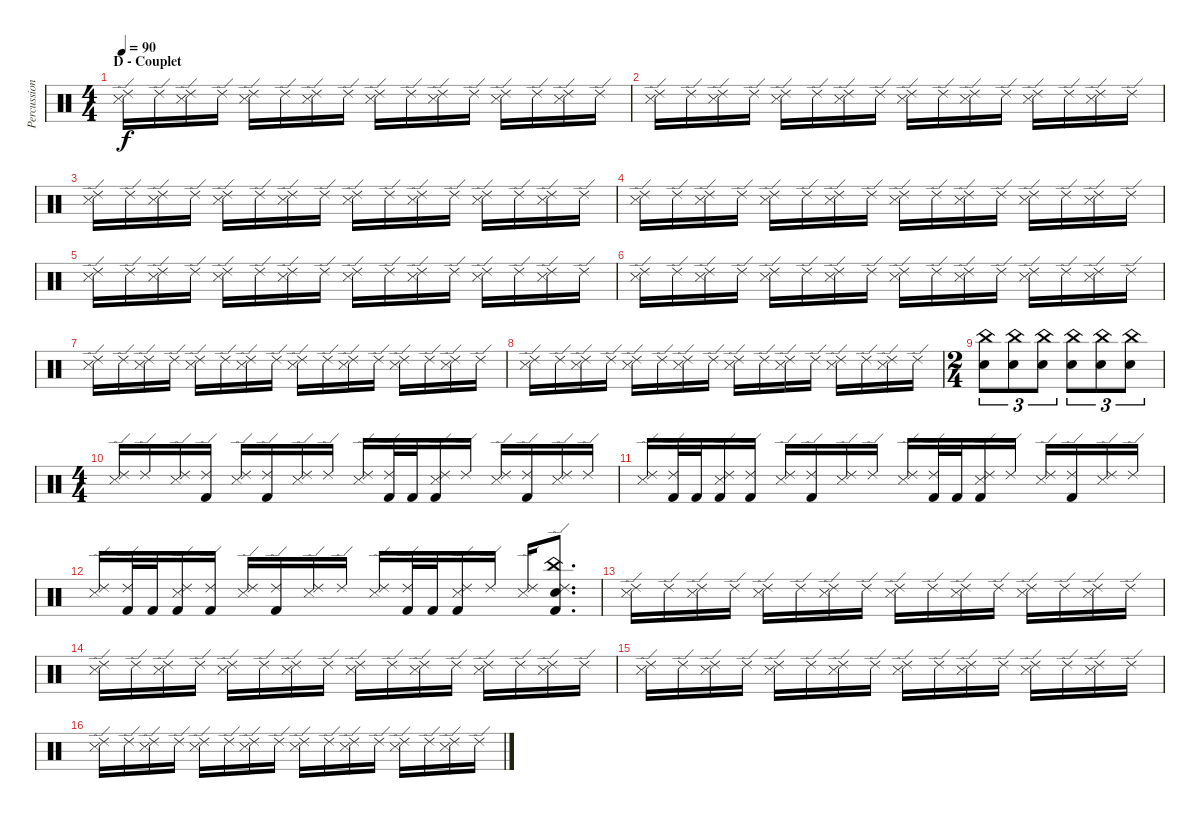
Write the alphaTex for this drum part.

\track ("Percussions" "Percussion") {instrument percussion}
\staff {score}
\articulation defaults
\ts (4 4)
\section ("" "D - Couplet")
\tempo 90
\clef neutral
\ks c
("Ride (edge) 2" "Metronome (hit)").16{dy f} "Ride (edge) 2".16 ("Ride (edge) 2" "Metronome (hit)").16 "Ride (edge) 2".16 ("Ride (edge) 2" "Metronome (hit)").16 "Ride (edge) 2".16 ("Ride (edge) 2" "Metronome (hit)").16 "Ride (edge) 2".16 ("Ride (edge) 2" "Metronome (hit)").16 "Ride (edge) 2".16 ("Ride (edge) 2" "Metronome (hit)").16 "Ride (edge) 2".16 ("Ride (edge) 2" "Metronome (hit)").16 "Ride (edge) 2".16 ("Ride (edge) 2" "Metronome (hit)").16 "Ride (edge) 2".16 |
("Ride (edge) 2" "Metronome (hit)").16 "Ride (edge) 2".16 ("Ride (edge) 2" "Metronome (hit)").16 "Ride (edge) 2".16 ("Ride (edge) 2" "Metronome (hit)").16 "Ride (edge) 2".16 ("Ride (edge) 2" "Metronome (hit)").16 "Ride (edge) 2".16 ("Ride (edge) 2" "Metronome (hit)").16 "Ride (edge) 2".16 ("Ride (edge) 2" "Metronome (hit)").16 "Ride (edge) 2".16 ("Ride (edge) 2" "Metronome (hit)").16 "Ride (edge) 2".16 ("Ride (edge) 2" "Metronome (hit)").16 "Ride (edge) 2".16 |
("Ride (edge) 2" "Metronome (hit)").16 "Ride (edge) 2".16 ("Ride (edge) 2" "Metronome (hit)").16 "Ride (edge) 2".16 ("Ride (edge) 2" "Metronome (hit)").16 "Ride (edge) 2".16 ("Ride (edge) 2" "Metronome (hit)").16 "Ride (edge) 2".16 ("Ride (edge) 2" "Metronome (hit)").16 "Ride (edge) 2".16 ("Ride (edge) 2" "Metronome (hit)").16 "Ride (edge) 2".16 ("Ride (edge) 2" "Metronome (hit)").16 "Ride (edge) 2".16 ("Ride (edge) 2" "Metronome (hit)").16 "Ride (edge) 2".16 |
("Ride (edge) 2" "Metronome (hit)").16 "Ride (edge) 2".16 ("Ride (edge) 2" "Metronome (hit)").16 "Ride (edge) 2".16 ("Ride (edge) 2" "Metronome (hit)").16 "Ride (edge) 2".16 ("Ride (edge) 2" "Metronome (hit)").16 "Ride (edge) 2".16 ("Ride (edge) 2" "Metronome (hit)").16 "Ride (edge) 2".16 ("Ride (edge) 2" "Metronome (hit)").16 "Ride (edge) 2".16 ("Ride (edge) 2" "Metronome (hit)").16 "Ride (edge) 2".16 ("Ride (edge) 2" "Metronome (hit)").16 "Ride (edge) 2".16 |
("Ride (edge) 2" "Metronome (hit)").16 "Ride (edge) 2".16 ("Ride (edge) 2" "Metronome (hit)").16 "Ride (edge) 2".16 ("Ride (edge) 2" "Metronome (hit)").16 "Ride (edge) 2".16 ("Ride (edge) 2" "Metronome (hit)").16 "Ride (edge) 2".16 ("Ride (edge) 2" "Metronome (hit)").16 "Ride (edge) 2".16 ("Ride (edge) 2" "Metronome (hit)").16 "Ride (edge) 2".16 ("Ride (edge) 2" "Metronome (hit)").16 "Ride (edge) 2".16 ("Ride (edge) 2" "Metronome (hit)").16 "Ride (edge) 2".16 |
("Ride (edge) 2" "Metronome (hit)").16 "Ride (edge) 2".16 ("Ride (edge) 2" "Metronome (hit)").16 "Ride (edge) 2".16 ("Ride (edge) 2" "Metronome (hit)").16 "Ride (edge) 2".16 ("Ride (edge) 2" "Metronome (hit)").16 "Ride (edge) 2".16 ("Ride (edge) 2" "Metronome (hit)").16 "Ride (edge) 2".16 ("Ride (edge) 2" "Metronome (hit)").16 "Ride (edge) 2".16 ("Ride (edge) 2" "Metronome (hit)").16 "Ride (edge) 2".16 ("Ride (edge) 2" "Metronome (hit)").16 "Ride (edge) 2".16 |
("Ride (edge) 2" "Metronome (hit)").16 "Ride (edge) 2".16 ("Ride (edge) 2" "Metronome (hit)").16 "Ride (edge) 2".16 ("Ride (edge) 2" "Metronome (hit)").16 "Ride (edge) 2".16 ("Ride (edge) 2" "Metronome (hit)").16 "Ride (edge) 2".16 ("Ride (edge) 2" "Metronome (hit)").16 "Ride (edge) 2".16 ("Ride (edge) 2" "Metronome (hit)").16 "Ride (edge) 2".16 ("Ride (edge) 2" "Metronome (hit)").16 "Ride (edge) 2".16 ("Ride (edge) 2" "Metronome (hit)").16 "Ride (edge) 2".16 |
("Ride (edge) 2" "Metronome (hit)").16 "Ride (edge) 2".16 ("Ride (edge) 2" "Metronome (hit)").16 "Ride (edge) 2".16 ("Ride (edge) 2" "Metronome (hit)").16 "Ride (edge) 2".16 ("Ride (edge) 2" "Metronome (hit)").16 "Ride (edge) 2".16 ("Ride (edge) 2" "Metronome (hit)").16 "Ride (edge) 2".16 ("Ride (edge) 2" "Metronome (hit)").16 "Ride (edge) 2".16 ("Ride (edge) 2" "Metronome (hit)").16 "Ride (edge) 2".16 ("Ride (edge) 2" "Metronome (hit)").16 "Ride (edge) 2".16 |
\ts (2 4)
("China (hit)" "Snare (hit) 2").8{tu (3 2)} ("China (hit)" "Snare (hit) 2").8{tu (3 2)} ("China (hit)" "Snare (hit) 2").8{tu (3 2)} ("China (hit)" "Snare (hit) 2").8{tu (3 2)} ("China (hit)" "Snare (hit) 2").8{tu (3 2)} ("China (hit)" "Snare (hit) 2").8{tu (3 2)} |
\ts (4 4)
("Ride (edge) 2" "Metronome (hit)").16 "Ride (edge) 2".16 ("Ride (edge) 2" "Metronome (hit)").16 ("Ride (edge) 2" "Kick (hit) 2").16 ("Ride (edge) 2" "Metronome (hit)").16 ("Ride (edge) 2" "Kick (hit) 2").16 ("Ride (edge) 2" "Metronome (hit)").16 "Ride (edge) 2".16 ("Ride (edge) 2" "Metronome (hit)").16 ("Ride (edge) 2" "Kick (hit) 2").32 "Kick (hit) 2".32 ("Ride (edge) 2" "Metronome (hit)" "Kick (hit) 2").16 "Ride (edge) 2".16 ("Ride (edge) 2" "Metronome (hit)").16 ("Ride (edge) 2" "Kick (hit) 2").16 ("Ride (edge) 2" "Metronome (hit)").16 "Ride (edge) 2".16 |
("Ride (edge) 2" "Metronome (hit)").16 ("Ride (edge) 2" "Kick (hit) 2").32 "Kick (hit) 2".32 ("Ride (edge) 2" "Metronome (hit)" "Kick (hit) 2").16 ("Ride (edge) 2" "Kick (hit) 2").16 ("Ride (edge) 2" "Metronome (hit)").16 ("Ride (edge) 2" "Kick (hit) 2").16 ("Ride (edge) 2" "Metronome (hit)").16 "Ride (edge) 2".16 ("Ride (edge) 2" "Metronome (hit)").16 ("Ride (edge) 2" "Kick (hit) 2").32 "Kick (hit) 2".32 ("Ride (edge) 2" "Metronome (hit)" "Kick (hit) 2").16 "Ride (edge) 2".16 ("Ride (edge) 2" "Metronome (hit)").16 ("Ride (edge) 2" "Kick (hit) 2").16 ("Ride (edge) 2" "Metronome (hit)").16 "Ride (edge) 2".16 |
("Ride (edge) 2" "Metronome (hit)").16 ("Ride (edge) 2" "Kick (hit) 2").32 "Kick (hit) 2".32 ("Ride (edge) 2" "Metronome (hit)" "Kick (hit) 2").16 ("Ride (edge) 2" "Kick (hit) 2").16 ("Ride (edge) 2" "Metronome (hit)").16 ("Ride (edge) 2" "Kick (hit) 2").16 ("Ride (edge) 2" "Metronome (hit)").16 "Ride (edge) 2".16 ("Ride (edge) 2" "Metronome (hit)").16 ("Ride (edge) 2" "Kick (hit) 2").32 "Kick (hit) 2".32 ("Ride (edge) 2" "Metronome (hit)" "Kick (hit) 2").16 "Ride (edge) 2".16 ("Ride (edge) 2" "Metronome (hit)").16 ("China (hit)" "Ride (edge) 2" "Snare (hit) 2" "Kick (hit) 2").8{d} |
("Ride (edge) 2" "Metronome (hit)").16 "Ride (edge) 2".16 ("Ride (edge) 2" "Metronome (hit)").16 "Ride (edge) 2".16 ("Ride (edge) 2" "Metronome (hit)").16 "Ride (edge) 2".16 ("Ride (edge) 2" "Metronome (hit)").16 "Ride (edge) 2".16 ("Ride (edge) 2" "Metronome (hit)").16 "Ride (edge) 2".16 ("Ride (edge) 2" "Metronome (hit)").16 "Ride (edge) 2".16 ("Ride (edge) 2" "Metronome (hit)").16 "Ride (edge) 2".16 ("Ride (edge) 2" "Metronome (hit)").16 "Ride (edge) 2".16 |
("Ride (edge) 2" "Metronome (hit)").16 "Ride (edge) 2".16 ("Ride (edge) 2" "Metronome (hit)").16 "Ride (edge) 2".16 ("Ride (edge) 2" "Metronome (hit)").16 "Ride (edge) 2".16 ("Ride (edge) 2" "Metronome (hit)").16 "Ride (edge) 2".16 ("Ride (edge) 2" "Metronome (hit)").16 "Ride (edge) 2".16 ("Ride (edge) 2" "Metronome (hit)").16 "Ride (edge) 2".16 ("Ride (edge) 2" "Metronome (hit)").16 "Ride (edge) 2".16 ("Ride (edge) 2" "Metronome (hit)").16 "Ride (edge) 2".16 |
("Ride (edge) 2" "Metronome (hit)").16 "Ride (edge) 2".16 ("Ride (edge) 2" "Metronome (hit)").16 "Ride (edge) 2".16 ("Ride (edge) 2" "Metronome (hit)").16 "Ride (edge) 2".16 ("Ride (edge) 2" "Metronome (hit)").16 "Ride (edge) 2".16 ("Ride (edge) 2" "Metronome (hit)").16 "Ride (edge) 2".16 ("Ride (edge) 2" "Metronome (hit)").16 "Ride (edge) 2".16 ("Ride (edge) 2" "Metronome (hit)").16 "Ride (edge) 2".16 ("Ride (edge) 2" "Metronome (hit)").16 "Ride (edge) 2".16 |
("Ride (edge) 2" "Metronome (hit)").16 "Ride (edge) 2".16 ("Ride (edge) 2" "Metronome (hit)").16 "Ride (edge) 2".16 ("Ride (edge) 2" "Metronome (hit)").16 "Ride (edge) 2".16 ("Ride (edge) 2" "Metronome (hit)").16 "Ride (edge) 2".16 ("Ride (edge) 2" "Metronome (hit)").16 "Ride (edge) 2".16 ("Ride (edge) 2" "Metronome (hit)").16 "Ride (edge) 2".16 ("Ride (edge) 2" "Metronome (hit)").16 "Ride (edge) 2".16 ("Ride (edge) 2" "Metronome (hit)").16 "Ride (edge) 2".16
